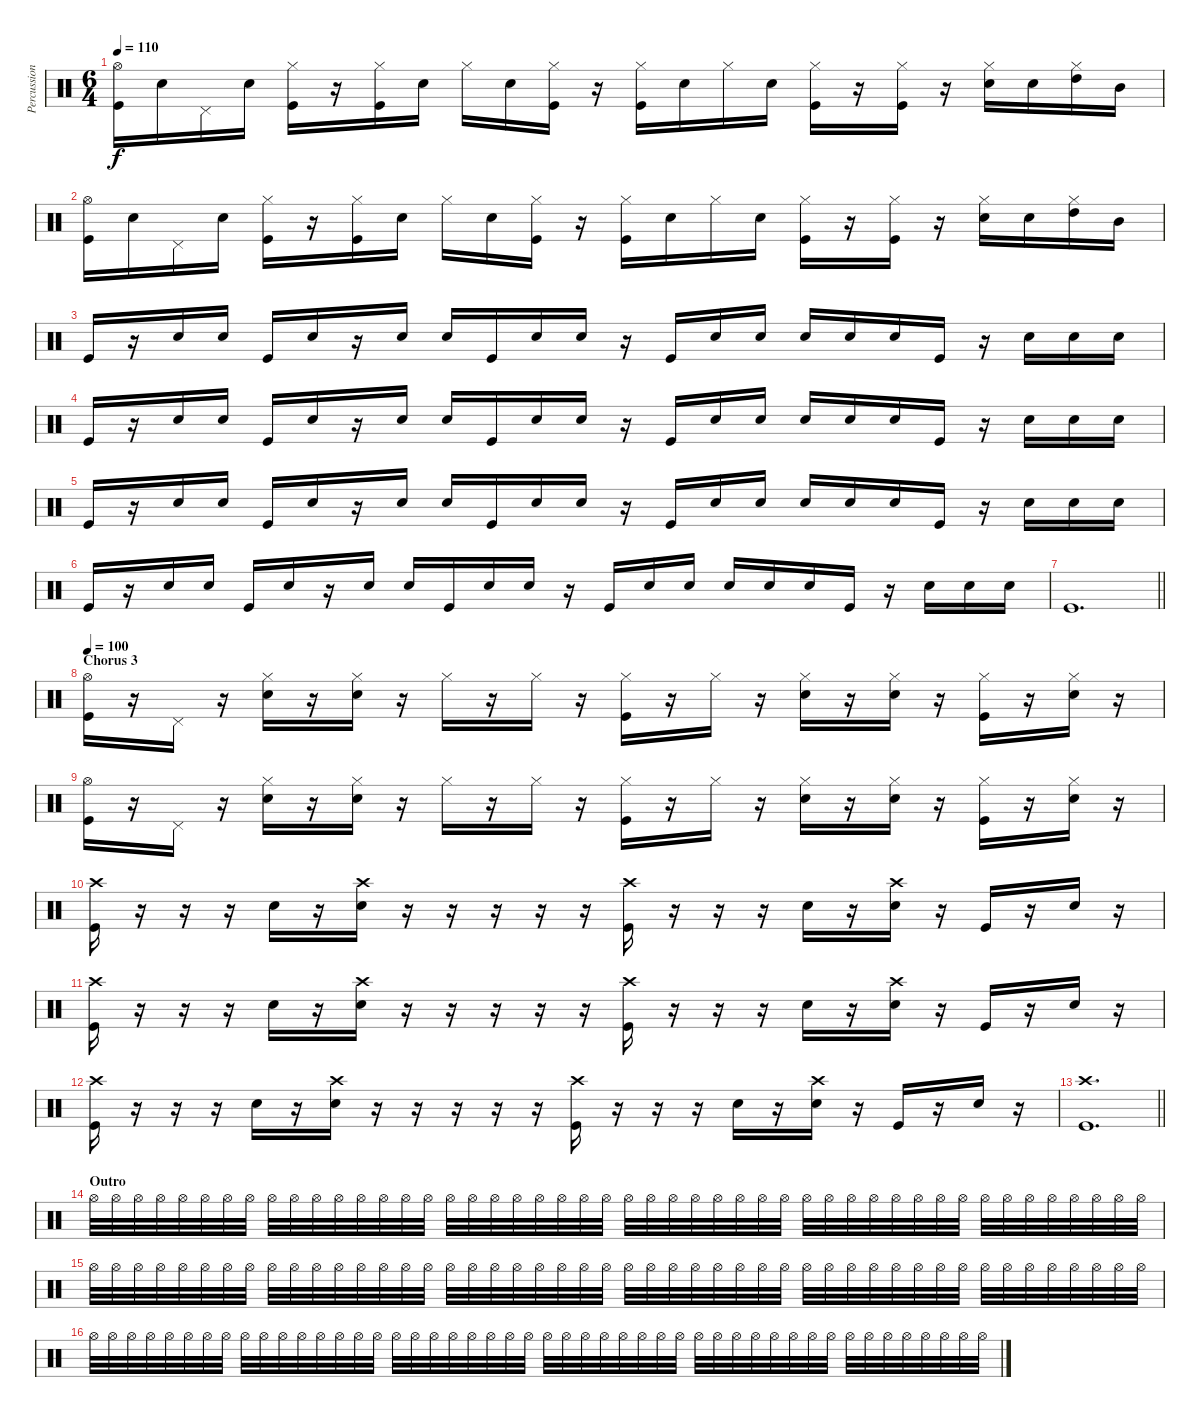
\track ("Percussion 1" "Percussion") {instrument percussion}
\staff {score}
\articulation defaults
\ts (6 4)
\tempo 110
\clef neutral
\ks c
("Hi-Hat (open)" "Kick (hit)").16{dy f} "Snare (hit) 2".16 "Pedal Hi-Hat (hit)".16 "Snare (hit) 2".16 ("Hi-Hat (closed)" "Kick (hit)").16 r.16 ("Hi-Hat (closed)" "Kick (hit)").16 "Snare (hit) 2".16 "Hi-Hat (closed)".16 "Snare (hit) 2".16 ("Hi-Hat (closed)" "Kick (hit)").16 r.16 ("Hi-Hat (closed)" "Kick (hit)").16 "Snare (hit) 2".16 "Hi-Hat (closed)".16 "Snare (hit) 2".16 ("Hi-Hat (closed)" "Kick (hit)").16 r.16 ("Hi-Hat (closed)" "Kick (hit)").16 r.16 ("Hi-Hat (closed)" "Snare (hit) 2").16 "Snare (hit) 2".16 ("Hi-Hat (closed)" "High Tom (hit)").16 "Mid Tom (hit)".16 |
("Hi-Hat (open)" "Kick (hit)").16 "Snare (hit) 2".16 "Pedal Hi-Hat (hit)".16 "Snare (hit) 2".16 ("Hi-Hat (closed)" "Kick (hit)").16 r.16 ("Hi-Hat (closed)" "Kick (hit)").16 "Snare (hit) 2".16 "Hi-Hat (closed)".16 "Snare (hit) 2".16 ("Hi-Hat (closed)" "Kick (hit)").16 r.16 ("Hi-Hat (closed)" "Kick (hit)").16 "Snare (hit) 2".16 "Hi-Hat (closed)".16 "Snare (hit) 2".16 ("Hi-Hat (closed)" "Kick (hit)").16 r.16 ("Hi-Hat (closed)" "Kick (hit)").16 r.16 ("Hi-Hat (closed)" "Snare (hit) 2").16 "Snare (hit) 2".16 ("Hi-Hat (closed)" "High Tom (hit)").16 "Mid Tom (hit)".16 |
"Kick (hit)".16 r.16 "Snare (hit) 2".16 "Snare (hit) 2".16 "Kick (hit)".16 "Snare (hit) 2".16 r.16 "Snare (hit) 2".16 "Snare (hit) 2".16 "Kick (hit)".16 "Snare (hit) 2".16 "Snare (hit) 2".16 r.16 "Kick (hit)".16 "Snare (hit) 2".16 "Snare (hit) 2".16 "Snare (hit) 2".16 "Snare (hit) 2".16 "Snare (hit) 2".16 "Kick (hit)".16 r.16 "Snare (hit) 2".16 "Snare (hit) 2".16 "Snare (hit) 2".16 |
"Kick (hit)".16 r.16 "Snare (hit) 2".16 "Snare (hit) 2".16 "Kick (hit)".16 "Snare (hit) 2".16 r.16 "Snare (hit) 2".16 "Snare (hit) 2".16 "Kick (hit)".16 "Snare (hit) 2".16 "Snare (hit) 2".16 r.16 "Kick (hit)".16 "Snare (hit) 2".16 "Snare (hit) 2".16 "Snare (hit) 2".16 "Snare (hit) 2".16 "Snare (hit) 2".16 "Kick (hit)".16 r.16 "Snare (hit) 2".16 "Snare (hit) 2".16 "Snare (hit) 2".16 |
"Kick (hit)".16 r.16 "Snare (hit) 2".16 "Snare (hit) 2".16 "Kick (hit)".16 "Snare (hit) 2".16 r.16 "Snare (hit) 2".16 "Snare (hit) 2".16 "Kick (hit)".16 "Snare (hit) 2".16 "Snare (hit) 2".16 r.16 "Kick (hit)".16 "Snare (hit) 2".16 "Snare (hit) 2".16 "Snare (hit) 2".16 "Snare (hit) 2".16 "Snare (hit) 2".16 "Kick (hit)".16 r.16 "Snare (hit) 2".16 "Snare (hit) 2".16 "Snare (hit) 2".16 |
"Kick (hit)".16 r.16 "Snare (hit) 2".16 "Snare (hit) 2".16 "Kick (hit)".16 "Snare (hit) 2".16 r.16 "Snare (hit) 2".16 "Snare (hit) 2".16 "Kick (hit)".16 "Snare (hit) 2".16 "Snare (hit) 2".16 r.16 "Kick (hit)".16 "Snare (hit) 2".16 "Snare (hit) 2".16 "Snare (hit) 2".16 "Snare (hit) 2".16 "Snare (hit) 2".16 "Kick (hit)".16 r.16 "Snare (hit) 2".16 "Snare (hit) 2".16 "Snare (hit) 2".16 |
\barLineRight lightlight "Kick (hit)".1{d}
|
\section ("" "Chorus 3")
\tempo 100
("Hi-Hat (open)" "Kick (hit)").16 r.16 "Pedal Hi-Hat (hit)".16 r.16 ("Hi-Hat (closed)" "Snare (hit) 2").16 r.16 ("Hi-Hat (closed)" "Snare (hit) 2").16 r.16 "Hi-Hat (closed)".16 r.16 "Hi-Hat (closed)".16 r.16 ("Hi-Hat (closed)" "Kick (hit)").16 r.16 "Hi-Hat (closed)".16 r.16 ("Hi-Hat (closed)" "Snare (hit) 2").16 r.16 ("Hi-Hat (closed)" "Snare (hit) 2").16 r.16 ("Hi-Hat (closed)" "Kick (hit)").16 r.16 ("Hi-Hat (closed)" "Snare (hit) 2").16 r.16 |
("Hi-Hat (open)" "Kick (hit)").16 r.16 "Pedal Hi-Hat (hit)".16 r.16 ("Hi-Hat (closed)" "Snare (hit) 2").16 r.16 ("Hi-Hat (closed)" "Snare (hit) 2").16 r.16 "Hi-Hat (closed)".16 r.16 "Hi-Hat (closed)".16 r.16 ("Hi-Hat (closed)" "Kick (hit)").16 r.16 "Hi-Hat (closed)".16 r.16 ("Hi-Hat (closed)" "Snare (hit) 2").16 r.16 ("Hi-Hat (closed)" "Snare (hit) 2").16 r.16 ("Hi-Hat (closed)" "Kick (hit)").16 r.16 ("Hi-Hat (closed)" "Snare (hit) 2").16 r.16 |
("Crash high (hit)" "Kick (hit)").16 r.16 r.16 r.16 "Snare (hit) 2".16 r.16 ("Crash high (hit)" "Snare (hit) 2").16 r.16 r.16 r.16 r.16 r.16 ("Crash high (hit)" "Kick (hit)").16 r.16 r.16 r.16 "Snare (hit) 2".16 r.16 ("Crash high (hit)" "Snare (hit) 2").16 r.16 "Kick (hit)".16 r.16 "Snare (hit) 2".16 r.16 |
("Crash high (hit)" "Kick (hit)").16 r.16 r.16 r.16 "Snare (hit) 2".16 r.16 ("Crash high (hit)" "Snare (hit) 2").16 r.16 r.16 r.16 r.16 r.16 ("Crash high (hit)" "Kick (hit)").16 r.16 r.16 r.16 "Snare (hit) 2".16 r.16 ("Crash high (hit)" "Snare (hit) 2").16 r.16 "Kick (hit)".16 r.16 "Snare (hit) 2".16 r.16 |
("Crash high (hit)" "Kick (hit)").16 r.16 r.16 r.16 "Snare (hit) 2".16 r.16 ("Crash high (hit)" "Snare (hit) 2").16 r.16 r.16 r.16 r.16 r.16 ("Crash high (hit)" "Kick (hit)").16 r.16 r.16 r.16 "Snare (hit) 2".16 r.16 ("Crash high (hit)" "Snare (hit) 2").16 r.16 "Kick (hit)".16 r.16 "Snare (hit) 2".16 r.16 |
\barLineRight lightlight
("Crash high (hit)" "Kick (hit)").1{d} |
\section ("" "Outro")
"Hi-Hat (open)".32 "Hi-Hat (open)".32 "Hi-Hat (open)".32 "Hi-Hat (open)".32 "Hi-Hat (open)".32 "Hi-Hat (open)".32 "Hi-Hat (open)".32 "Hi-Hat (open)".32 "Hi-Hat (open)".32 "Hi-Hat (open)".32 "Hi-Hat (open)".32 "Hi-Hat (open)".32 "Hi-Hat (open)".32 "Hi-Hat (open)".32 "Hi-Hat (open)".32 "Hi-Hat (open)".32 "Hi-Hat (open)".32 "Hi-Hat (open)".32 "Hi-Hat (open)".32 "Hi-Hat (open)".32 "Hi-Hat (open)".32 "Hi-Hat (open)".32 "Hi-Hat (open)".32 "Hi-Hat (open)".32 "Hi-Hat (open)".32 "Hi-Hat (open)".32 "Hi-Hat (open)".32 "Hi-Hat (open)".32 "Hi-Hat (open)".32 "Hi-Hat (open)".32 "Hi-Hat (open)".32 "Hi-Hat (open)".32 "Hi-Hat (open)".32 "Hi-Hat (open)".32 "Hi-Hat (open)".32 "Hi-Hat (open)".32 "Hi-Hat (open)".32 "Hi-Hat (open)".32 "Hi-Hat (open)".32 "Hi-Hat (open)".32 "Hi-Hat (open)".32 "Hi-Hat (open)".32 "Hi-Hat (open)".32 "Hi-Hat (open)".32 "Hi-Hat (open)".32 "Hi-Hat (open)".32 "Hi-Hat (open)".32 "Hi-Hat (open)".32 |
"Hi-Hat (open)".32 "Hi-Hat (open)".32 "Hi-Hat (open)".32 "Hi-Hat (open)".32 "Hi-Hat (open)".32 "Hi-Hat (open)".32 "Hi-Hat (open)".32 "Hi-Hat (open)".32 "Hi-Hat (open)".32 "Hi-Hat (open)".32 "Hi-Hat (open)".32 "Hi-Hat (open)".32 "Hi-Hat (open)".32 "Hi-Hat (open)".32 "Hi-Hat (open)".32 "Hi-Hat (open)".32 "Hi-Hat (open)".32 "Hi-Hat (open)".32 "Hi-Hat (open)".32 "Hi-Hat (open)".32 "Hi-Hat (open)".32 "Hi-Hat (open)".32 "Hi-Hat (open)".32 "Hi-Hat (open)".32 "Hi-Hat (open)".32 "Hi-Hat (open)".32 "Hi-Hat (open)".32 "Hi-Hat (open)".32 "Hi-Hat (open)".32 "Hi-Hat (open)".32 "Hi-Hat (open)".32 "Hi-Hat (open)".32 "Hi-Hat (open)".32 "Hi-Hat (open)".32 "Hi-Hat (open)".32 "Hi-Hat (open)".32 "Hi-Hat (open)".32 "Hi-Hat (open)".32 "Hi-Hat (open)".32 "Hi-Hat (open)".32 "Hi-Hat (open)".32 "Hi-Hat (open)".32 "Hi-Hat (open)".32 "Hi-Hat (open)".32 "Hi-Hat (open)".32 "Hi-Hat (open)".32 "Hi-Hat (open)".32 "Hi-Hat (open)".32 |
"Hi-Hat (open)".32 "Hi-Hat (open)".32 "Hi-Hat (open)".32 "Hi-Hat (open)".32 "Hi-Hat (open)".32 "Hi-Hat (open)".32 "Hi-Hat (open)".32 "Hi-Hat (open)".32 "Hi-Hat (open)".32 "Hi-Hat (open)".32 "Hi-Hat (open)".32 "Hi-Hat (open)".32 "Hi-Hat (open)".32 "Hi-Hat (open)".32 "Hi-Hat (open)".32 "Hi-Hat (open)".32 "Hi-Hat (open)".32 "Hi-Hat (open)".32 "Hi-Hat (open)".32 "Hi-Hat (open)".32 "Hi-Hat (open)".32 "Hi-Hat (open)".32 "Hi-Hat (open)".32 "Hi-Hat (open)".32 "Hi-Hat (open)".32 "Hi-Hat (open)".32 "Hi-Hat (open)".32 "Hi-Hat (open)".32 "Hi-Hat (open)".32 "Hi-Hat (open)".32 "Hi-Hat (open)".32 "Hi-Hat (open)".32 "Hi-Hat (open)".32 "Hi-Hat (open)".32 "Hi-Hat (open)".32 "Hi-Hat (open)".32 "Hi-Hat (open)".32 "Hi-Hat (open)".32 "Hi-Hat (open)".32 "Hi-Hat (open)".32 "Hi-Hat (open)".32 "Hi-Hat (open)".32 "Hi-Hat (open)".32 "Hi-Hat (open)".32 "Hi-Hat (open)".32 "Hi-Hat (open)".32 "Hi-Hat (open)".32 "Hi-Hat (open)".32
